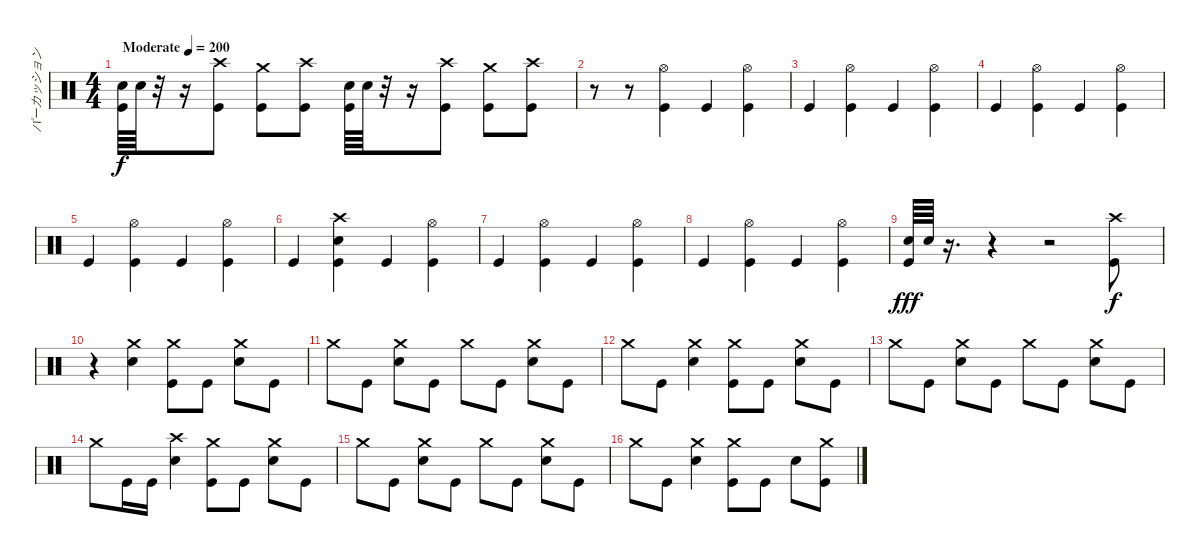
\track ("パーカッション" "パーカッション") {instrument percussion}
\staff {score}
\articulation defaults
\ts (4 4)
\tempo (200 "Moderate")
\clef neutral
\ks c
("Snare (hit) 2" "Kick (hit)").64{dy f} "Snare (hit) 2".64 r.32 r.16 ("Kick (hit)" "Crash high (hit)").8 ("Crash medium (hit)" "Kick (hit)").8 ("Kick (hit)" "Crash high (hit)").8 ("Snare (hit) 2" "Kick (hit)").64 "Snare (hit) 2".64 r.32 r.16 ("Kick (hit)" "Crash high (hit)").8 ("Crash medium (hit)" "Kick (hit)").8 ("Kick (hit)" "Crash high (hit)").8 |
r.8 r.8 ("Kick (hit)" "Hi-Hat (open)").4 "Kick (hit)".4 ("Kick (hit)" "Hi-Hat (open)").4 |
"Kick (hit)".4 ("Kick (hit)" "Hi-Hat (open)").4 "Kick (hit)".4 ("Kick (hit)" "Hi-Hat (open)").4 |
"Kick (hit)".4 ("Kick (hit)" "Hi-Hat (open)").4 "Kick (hit)".4 ("Kick (hit)" "Hi-Hat (open)").4 |
"Kick (hit)".4 ("Kick (hit)" "Hi-Hat (open)").4 "Kick (hit)".4 ("Kick (hit)" "Hi-Hat (open)").4 |
"Kick (hit)".4 ("Kick (hit)" "Crash high (hit)" "Snare (hit) 2").4 "Kick (hit)".4 ("Kick (hit)" "Hi-Hat (open)").4 |
"Kick (hit)".4 ("Kick (hit)" "Hi-Hat (open)").4 "Kick (hit)".4 ("Kick (hit)" "Hi-Hat (open)").4 |
"Kick (hit)".4 ("Kick (hit)" "Hi-Hat (open)").4 "Kick (hit)".4 ("Kick (hit)" "Hi-Hat (open)").4 |
("Snare (hit) 2" "Kick (hit)").64{dy fff} "Snare (hit) 2".64 r.16{d} r.4 r.2 ("Kick (hit)" "Crash high (hit)").8{dy f} |
r.4 ("Crash medium (hit)" "Snare (hit) 2").4 ("Crash medium (hit)" "Kick (hit)").8 "Kick (hit)".8 ("Crash medium (hit)" "Snare (hit) 2").8 "Kick (hit)".8 |
"Crash medium (hit)".8 "Kick (hit)".8 ("Snare (hit) 2" "Crash medium (hit)").8 "Kick (hit)".8 "Crash medium (hit)".8 "Kick (hit)".8 ("Snare (hit) 2" "Crash medium (hit)").8 "Kick (hit)".8 |
"Crash medium (hit)".8 "Kick (hit)".8 ("Snare (hit) 2" "Crash medium (hit)").4 ("Crash medium (hit)" "Kick (hit)").8 "Kick (hit)".8 ("Crash medium (hit)" "Snare (hit) 2").8 "Kick (hit)".8 |
"Crash medium (hit)".8 "Kick (hit)".8 ("Snare (hit) 2" "Crash medium (hit)").8 "Kick (hit)".8 "Crash medium (hit)".8 "Kick (hit)".8 ("Snare (hit) 2" "Crash medium (hit)").8 "Kick (hit)".8 |
"Crash medium (hit)".8 "Kick (hit)".16 "Kick (hit)".16 ("Snare (hit) 2" "Crash high (hit)").4 ("Crash medium (hit)" "Kick (hit)").8 "Kick (hit)".8 ("Crash medium (hit)" "Snare (hit) 2").8 "Kick (hit)".8 |
"Crash medium (hit)".8 "Kick (hit)".8 ("Snare (hit) 2" "Crash medium (hit)").8 "Kick (hit)".8 "Crash medium (hit)".8 "Kick (hit)".8 ("Snare (hit) 2" "Crash medium (hit)").8 "Kick (hit)".8 |
"Crash medium (hit)".8 "Kick (hit)".8 ("Snare (hit) 2" "Crash medium (hit)").4 ("Crash medium (hit)" "Kick (hit)").8 "Kick (hit)".8 "Snare (hit) 2".8 ("Kick (hit)" "Crash medium (hit)").8
